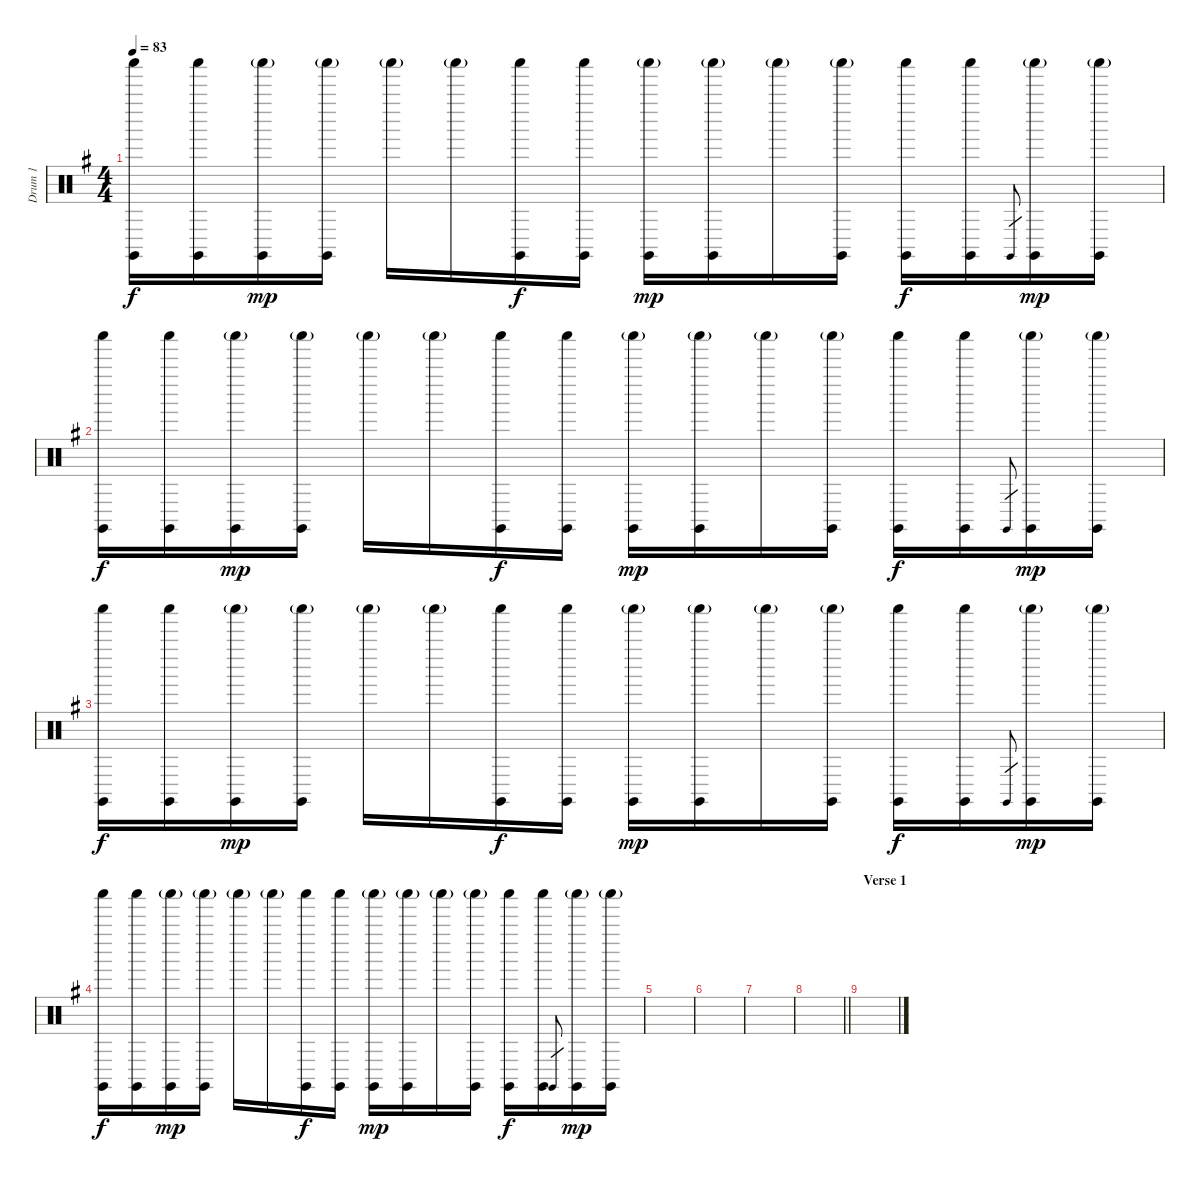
\track ("Drum 1" "Drum 1") {instrument percussion}
\staff {score}
\articulation defaults
\ts (4 4)
\tempo 83
\clef neutral
\ks eminor
("Shaker (hit)" "Claves (hit)").16{dy f} ("Shaker (hit)" "Claves (hit)").16 ("Shaker (hit)"{g} "Claves (hit)").16{dy mp} ("Shaker (hit)"{g} "Claves (hit)").16 "Shaker (hit)"{g}.16 "Shaker (hit)"{g}.16 ("Shaker (hit)" "Claves (hit)").16{dy f} ("Shaker (hit)" "Claves (hit)").16 ("Shaker (hit)"{g} "Claves (hit)").16{dy mp} ("Shaker (hit)"{g} "Claves (hit)").16 "Shaker (hit)"{g}.16 ("Shaker (hit)"{g} "Claves (hit)").16 ("Shaker (hit)" "Claves (hit)").16{dy f} ("Shaker (hit)" "Claves (hit)").16 "Claves (hit)".8{gr} ("Shaker (hit)"{g} "Claves (hit)").16{dy mp} ("Shaker (hit)"{g} "Claves (hit)").16 |
("Shaker (hit)" "Claves (hit)").16{dy f} ("Shaker (hit)" "Claves (hit)").16 ("Shaker (hit)"{g} "Claves (hit)").16{dy mp} ("Shaker (hit)"{g} "Claves (hit)").16 "Shaker (hit)"{g}.16 "Shaker (hit)"{g}.16 ("Shaker (hit)" "Claves (hit)").16{dy f} ("Shaker (hit)" "Claves (hit)").16 ("Shaker (hit)"{g} "Claves (hit)").16{dy mp} ("Shaker (hit)"{g} "Claves (hit)").16 "Shaker (hit)"{g}.16 ("Shaker (hit)"{g} "Claves (hit)").16 ("Shaker (hit)" "Claves (hit)").16{dy f} ("Shaker (hit)" "Claves (hit)").16 "Claves (hit)".8{gr} ("Shaker (hit)"{g} "Claves (hit)").16{dy mp} ("Shaker (hit)"{g} "Claves (hit)").16 |
("Shaker (hit)" "Claves (hit)").16{dy f} ("Shaker (hit)" "Claves (hit)").16 ("Shaker (hit)"{g} "Claves (hit)").16{dy mp} ("Shaker (hit)"{g} "Claves (hit)").16 "Shaker (hit)"{g}.16 "Shaker (hit)"{g}.16 ("Shaker (hit)" "Claves (hit)").16{dy f} ("Shaker (hit)" "Claves (hit)").16 ("Shaker (hit)"{g} "Claves (hit)").16{dy mp} ("Shaker (hit)"{g} "Claves (hit)").16 "Shaker (hit)"{g}.16 ("Shaker (hit)"{g} "Claves (hit)").16 ("Shaker (hit)" "Claves (hit)").16{dy f} ("Shaker (hit)" "Claves (hit)").16 "Claves (hit)".8{gr} ("Shaker (hit)"{g} "Claves (hit)").16{dy mp} ("Shaker (hit)"{g} "Claves (hit)").16 |
("Shaker (hit)" "Claves (hit)").16{dy f} ("Shaker (hit)" "Claves (hit)").16 ("Shaker (hit)"{g} "Claves (hit)").16{dy mp} ("Shaker (hit)"{g} "Claves (hit)").16 "Shaker (hit)"{g}.16 "Shaker (hit)"{g}.16 ("Shaker (hit)" "Claves (hit)").16{dy f} ("Shaker (hit)" "Claves (hit)").16 ("Shaker (hit)"{g} "Claves (hit)").16{dy mp} ("Shaker (hit)"{g} "Claves (hit)").16 "Shaker (hit)"{g}.16 ("Shaker (hit)"{g} "Claves (hit)").16 ("Shaker (hit)" "Claves (hit)").16{dy f} ("Shaker (hit)" "Claves (hit)").16 "Claves (hit)".8{gr} ("Shaker (hit)"{g} "Claves (hit)").16{dy mp} ("Shaker (hit)"{g} "Claves (hit)").16 |
|
|
|
\barLineRight lightlight
|
\section ("" "Verse 1")
